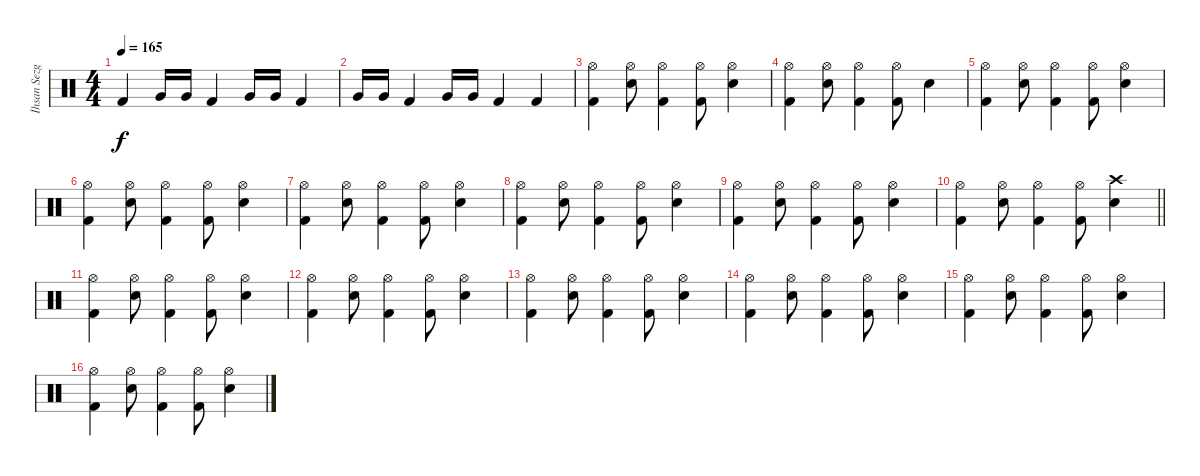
\track ("İhsan Sezgin" "İhsan Sezg") {instrument percussion}
\staff {score}
\articulation defaults
\ts (4 4)
\tempo 165
\clef neutral
\ks c "Kick (hit) 2".4{dy f} "Very Low Tom (hit)".16 "Very Low Tom (hit)".16 "Kick (hit) 2".4 "Very Low Tom (hit)".16 "Very Low Tom (hit)".16 "Kick (hit) 2".4
|
"Very Low Tom (hit)".16 "Very Low Tom (hit)".16 "Kick (hit) 2".4 "Very Low Tom (hit)".16 "Very Low Tom (hit)".16 "Kick (hit) 2".4 "Kick (hit) 2".4 |
("Hi-Hat (open)" "Kick (hit) 2").4 ("Snare (hit) 2" "Hi-Hat (open)").8 ("Hi-Hat (open)" "Kick (hit) 2").4 ("Hi-Hat (open)" "Kick (hit) 2").8 ("Snare (hit) 2" "Hi-Hat (open)").4 |
("Hi-Hat (open)" "Kick (hit) 2").4 ("Snare (hit) 2" "Hi-Hat (open)").8 ("Hi-Hat (open)" "Kick (hit) 2").4 ("Hi-Hat (open)" "Kick (hit) 2").8 "Snare (hit) 2".4 |
("Hi-Hat (open)" "Kick (hit) 2").4 ("Snare (hit) 2" "Hi-Hat (open)").8 ("Hi-Hat (open)" "Kick (hit) 2").4 ("Hi-Hat (open)" "Kick (hit) 2").8 ("Snare (hit) 2" "Hi-Hat (open)").4 |
("Hi-Hat (open)" "Kick (hit) 2").4 ("Snare (hit) 2" "Hi-Hat (open)").8 ("Hi-Hat (open)" "Kick (hit) 2").4 ("Hi-Hat (open)" "Kick (hit) 2").8 ("Snare (hit) 2" "Hi-Hat (open)").4 |
("Hi-Hat (open)" "Kick (hit) 2").4 ("Snare (hit) 2" "Hi-Hat (open)").8 ("Hi-Hat (open)" "Kick (hit) 2").4 ("Hi-Hat (open)" "Kick (hit) 2").8 ("Snare (hit) 2" "Hi-Hat (open)").4 |
("Hi-Hat (open)" "Kick (hit) 2").4 ("Snare (hit) 2" "Hi-Hat (open)").8 ("Hi-Hat (open)" "Kick (hit) 2").4 ("Hi-Hat (open)" "Kick (hit) 2").8 ("Snare (hit) 2" "Hi-Hat (open)").4 |
("Hi-Hat (open)" "Kick (hit) 2").4 ("Snare (hit) 2" "Hi-Hat (open)").8 ("Hi-Hat (open)" "Kick (hit) 2").4 ("Hi-Hat (open)" "Kick (hit) 2").8 ("Snare (hit) 2" "Hi-Hat (open)").4 |
\barLineRight lightlight
("Hi-Hat (open)" "Kick (hit) 2").4 ("Snare (hit) 2" "Hi-Hat (open)").8 ("Hi-Hat (open)" "Kick (hit) 2").4 ("Hi-Hat (open)" "Kick (hit) 2").8 ("Snare (hit) 2" "Crash high (hit)").4 |
("Hi-Hat (open)" "Kick (hit) 2").4 ("Snare (hit) 2" "Hi-Hat (open)").8 ("Hi-Hat (open)" "Kick (hit) 2").4 ("Hi-Hat (open)" "Kick (hit) 2").8 ("Snare (hit) 2" "Hi-Hat (open)").4 |
("Hi-Hat (open)" "Kick (hit) 2").4 ("Snare (hit) 2" "Hi-Hat (open)").8 ("Hi-Hat (open)" "Kick (hit) 2").4 ("Hi-Hat (open)" "Kick (hit) 2").8 ("Snare (hit) 2" "Hi-Hat (open)").4 |
("Hi-Hat (open)" "Kick (hit) 2").4 ("Snare (hit) 2" "Hi-Hat (open)").8 ("Hi-Hat (open)" "Kick (hit) 2").4 ("Hi-Hat (open)" "Kick (hit) 2").8 ("Snare (hit) 2" "Hi-Hat (open)").4 |
("Hi-Hat (open)" "Kick (hit) 2").4 ("Snare (hit) 2" "Hi-Hat (open)").8 ("Hi-Hat (open)" "Kick (hit) 2").4 ("Hi-Hat (open)" "Kick (hit) 2").8 ("Snare (hit) 2" "Hi-Hat (open)").4 |
("Hi-Hat (open)" "Kick (hit) 2").4 ("Snare (hit) 2" "Hi-Hat (open)").8 ("Hi-Hat (open)" "Kick (hit) 2").4 ("Hi-Hat (open)" "Kick (hit) 2").8 ("Snare (hit) 2" "Hi-Hat (open)").4 |
("Hi-Hat (open)" "Kick (hit) 2").4 ("Snare (hit) 2" "Hi-Hat (open)").8 ("Hi-Hat (open)" "Kick (hit) 2").4 ("Hi-Hat (open)" "Kick (hit) 2").8 ("Snare (hit) 2" "Hi-Hat (open)").4
